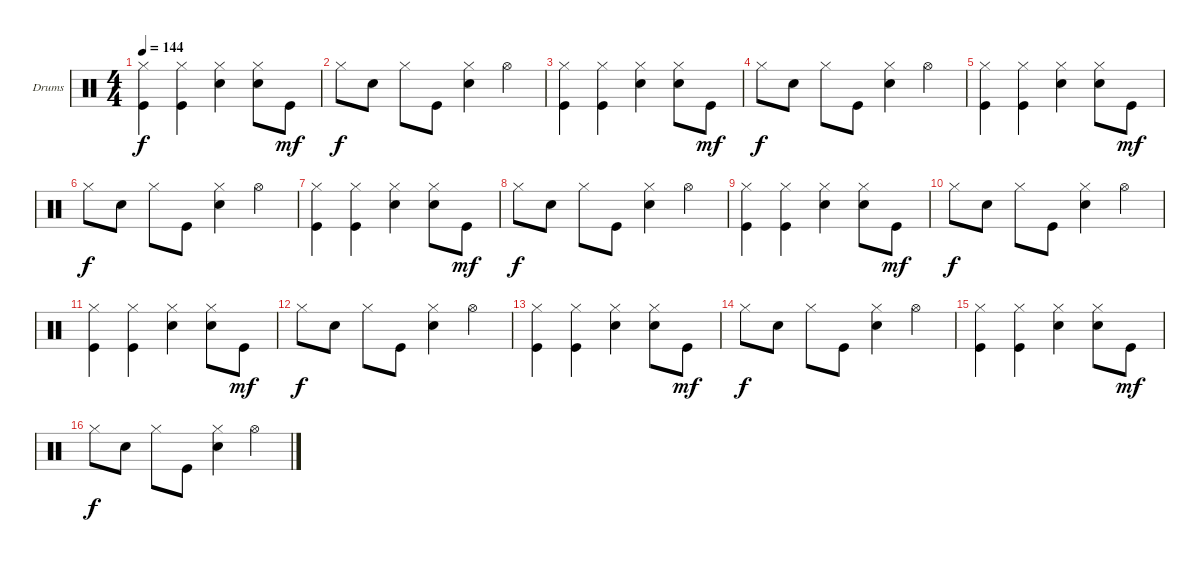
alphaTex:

\bracketExtendMode groupsimilarinstruments
\firstSystemTrackNameOrientation horizontal
\otherSystemsTrackNameOrientation horizontal
\track ("Drumkit" "Drums") {instrument percussion}
\staff {score}
\articulation defaults
\ts (4 4)
\tempo 144
\clef neutral
\ks c
("Hi-Hat (closed)" "Kick (hit)").4{dy f} ("Hi-Hat (closed)" "Kick (hit)").4 ("Hi-Hat (closed)" "Snare (hit) 2").4 ("Hi-Hat (closed)" "Snare (hit) 2").8 "Kick (hit)".8{dy mf} |
"Hi-Hat (closed)".8{dy f} "Snare (hit) 2".8 "Hi-Hat (closed)".8 "Kick (hit)".8 ("Hi-Hat (closed)" "Snare (hit) 2").4 "Hi-Hat (open)".4 |
("Hi-Hat (closed)" "Kick (hit)").4 ("Hi-Hat (closed)" "Kick (hit)").4 ("Hi-Hat (closed)" "Snare (hit) 2").4 ("Hi-Hat (closed)" "Snare (hit) 2").8 "Kick (hit)".8{dy mf} |
"Hi-Hat (closed)".8{dy f} "Snare (hit) 2".8 "Hi-Hat (closed)".8 "Kick (hit)".8 ("Hi-Hat (closed)" "Snare (hit) 2").4 "Hi-Hat (open)".4 |
("Hi-Hat (closed)" "Kick (hit)").4 ("Hi-Hat (closed)" "Kick (hit)").4 ("Hi-Hat (closed)" "Snare (hit) 2").4 ("Hi-Hat (closed)" "Snare (hit) 2").8 "Kick (hit)".8{dy mf} |
"Hi-Hat (closed)".8{dy f} "Snare (hit) 2".8 "Hi-Hat (closed)".8 "Kick (hit)".8 ("Hi-Hat (closed)" "Snare (hit) 2").4 "Hi-Hat (open)".4 |
("Hi-Hat (closed)" "Kick (hit)").4 ("Hi-Hat (closed)" "Kick (hit)").4 ("Hi-Hat (closed)" "Snare (hit) 2").4 ("Hi-Hat (closed)" "Snare (hit) 2").8 "Kick (hit)".8{dy mf} |
"Hi-Hat (closed)".8{dy f} "Snare (hit) 2".8 "Hi-Hat (closed)".8 "Kick (hit)".8 ("Hi-Hat (closed)" "Snare (hit) 2").4 "Hi-Hat (open)".4 |
("Hi-Hat (closed)" "Kick (hit)").4 ("Hi-Hat (closed)" "Kick (hit)").4 ("Hi-Hat (closed)" "Snare (hit) 2").4 ("Hi-Hat (closed)" "Snare (hit) 2").8 "Kick (hit)".8{dy mf} |
"Hi-Hat (closed)".8{dy f} "Snare (hit) 2".8 "Hi-Hat (closed)".8 "Kick (hit)".8 ("Hi-Hat (closed)" "Snare (hit) 2").4 "Hi-Hat (open)".4 |
("Hi-Hat (closed)" "Kick (hit)").4 ("Hi-Hat (closed)" "Kick (hit)").4 ("Hi-Hat (closed)" "Snare (hit) 2").4 ("Hi-Hat (closed)" "Snare (hit) 2").8 "Kick (hit)".8{dy mf} |
"Hi-Hat (closed)".8{dy f} "Snare (hit) 2".8 "Hi-Hat (closed)".8 "Kick (hit)".8 ("Hi-Hat (closed)" "Snare (hit) 2").4 "Hi-Hat (open)".4 |
("Hi-Hat (closed)" "Kick (hit)").4 ("Hi-Hat (closed)" "Kick (hit)").4 ("Hi-Hat (closed)" "Snare (hit) 2").4 ("Hi-Hat (closed)" "Snare (hit) 2").8 "Kick (hit)".8{dy mf} |
"Hi-Hat (closed)".8{dy f} "Snare (hit) 2".8 "Hi-Hat (closed)".8 "Kick (hit)".8 ("Hi-Hat (closed)" "Snare (hit) 2").4 "Hi-Hat (open)".4 |
("Hi-Hat (closed)" "Kick (hit)").4 ("Hi-Hat (closed)" "Kick (hit)").4 ("Hi-Hat (closed)" "Snare (hit) 2").4 ("Hi-Hat (closed)" "Snare (hit) 2").8 "Kick (hit)".8{dy mf} |
"Hi-Hat (closed)".8{dy f} "Snare (hit) 2".8 "Hi-Hat (closed)".8 "Kick (hit)".8 ("Hi-Hat (closed)" "Snare (hit) 2").4 "Hi-Hat (open)".4
